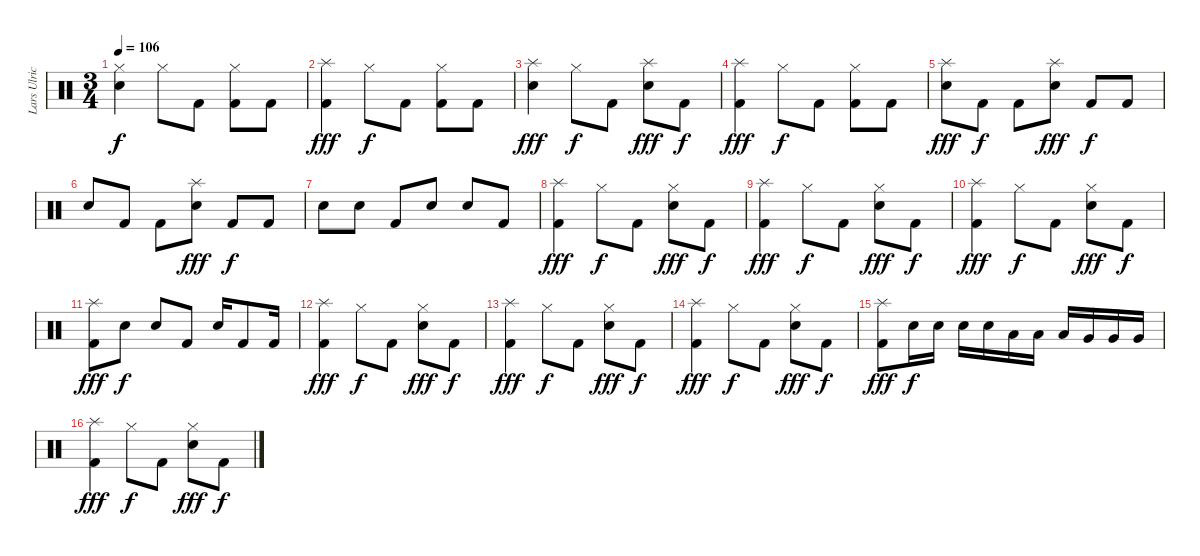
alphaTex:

\track ("Lars Ulrich [Drums]" "Lars Ulric") {instrument percussion}
\staff {score}
\articulation defaults
\ts (3 4)
\tempo 106
\clef neutral
\ks c
("Hi-Hat (closed)" "Electric Snare (hit)").4{dy f} "Hi-Hat (closed)".8 "Kick (hit) 2".8 ("Hi-Hat (closed)" "Kick (hit) 2").8 "Kick (hit) 2".8 |
("Splash (hit)" "Kick (hit) 2").4{dy fff} "Hi-Hat (closed)".8{dy f} "Kick (hit) 2".8 ("Hi-Hat (closed)" "Kick (hit) 2").8 "Kick (hit) 2".8 |
("Splash (hit)" "Electric Snare (hit)").4{dy fff} "Hi-Hat (closed)".8{dy f} "Kick (hit) 2".8 ("Splash (hit)" "Electric Snare (hit)").8{dy fff} "Kick (hit) 2".8{dy f} |
("Splash (hit)" "Kick (hit) 2").4{dy fff} "Hi-Hat (closed)".8{dy f} "Kick (hit) 2".8 ("Hi-Hat (closed)" "Kick (hit) 2").8 "Kick (hit) 2".8 |
("Splash (hit)" "Electric Snare (hit)").8{dy fff} "Kick (hit) 2".8{dy f} "Kick (hit) 2".8 ("Splash (hit)" "Electric Snare (hit)").8{dy fff} "Kick (hit) 2".8{dy f} "Kick (hit) 2".8 |
"Electric Snare (hit)".8 "Kick (hit) 2".8 "Kick (hit) 2".8 ("Splash (hit)" "Electric Snare (hit)").8{dy fff} "Kick (hit) 2".8{dy f} "Kick (hit) 2".8 |
"Electric Snare (hit)".8 "Electric Snare (hit)".8 "Kick (hit) 2".8 "Electric Snare (hit)".8 "Electric Snare (hit)".8 "Kick (hit) 2".8 |
("Splash (hit)" "Kick (hit) 2").4{dy fff} "Hi-Hat (closed)".8{dy f} "Kick (hit) 2".8 ("Hi-Hat (closed)" "Electric Snare (hit)").8{dy fff} "Kick (hit) 2".8{dy f} |
("Splash (hit)" "Kick (hit) 2").4{dy fff} "Hi-Hat (closed)".8{dy f} "Kick (hit) 2".8 ("Hi-Hat (closed)" "Electric Snare (hit)").8{dy fff} "Kick (hit) 2".8{dy f} |
("Splash (hit)" "Kick (hit) 2").4{dy fff} "Hi-Hat (closed)".8{dy f} "Kick (hit) 2".8 ("Hi-Hat (closed)" "Electric Snare (hit)").8{dy fff} "Kick (hit) 2".8{dy f} |
("Splash (hit)" "Kick (hit) 2").8{dy fff} "Electric Snare (hit)".8{dy f} "Electric Snare (hit)".8 "Kick (hit) 2".8 "Electric Snare (hit)".16 "Kick (hit) 2".8 "Kick (hit) 2".16 |
("Splash (hit)" "Kick (hit) 2").4{dy fff} "Hi-Hat (closed)".8{dy f} "Kick (hit) 2".8 ("Hi-Hat (closed)" "Electric Snare (hit)").8{dy fff} "Kick (hit) 2".8{dy f} |
("Splash (hit)" "Kick (hit) 2").4{dy fff} "Hi-Hat (closed)".8{dy f} "Kick (hit) 2".8 ("Hi-Hat (closed)" "Electric Snare (hit)").8{dy fff} "Kick (hit) 2".8{dy f} |
("Splash (hit)" "Kick (hit) 2").4{dy fff} "Hi-Hat (closed)".8{dy f} "Kick (hit) 2".8 ("Hi-Hat (closed)" "Electric Snare (hit)").8{dy fff} "Kick (hit) 2".8{dy f} |
("Splash (hit)" "Kick (hit) 2").8{dy fff} "Electric Snare (hit)".16{dy f} "Electric Snare (hit)".16 "Electric Snare (hit)".16 "Electric Snare (hit)".16 "Low Tom (hit)".16 "Low Tom (hit)".16 "Low Tom (hit)".16 "Very Low Tom (hit)".16 "Very Low Tom (hit)".16 "Very Low Tom (hit)".16 |
("Splash (hit)" "Kick (hit) 2").4{dy fff} "Hi-Hat (closed)".8{dy f} "Kick (hit) 2".8 ("Hi-Hat (closed)" "Electric Snare (hit)").8{dy fff} "Kick (hit) 2".8{dy f}
